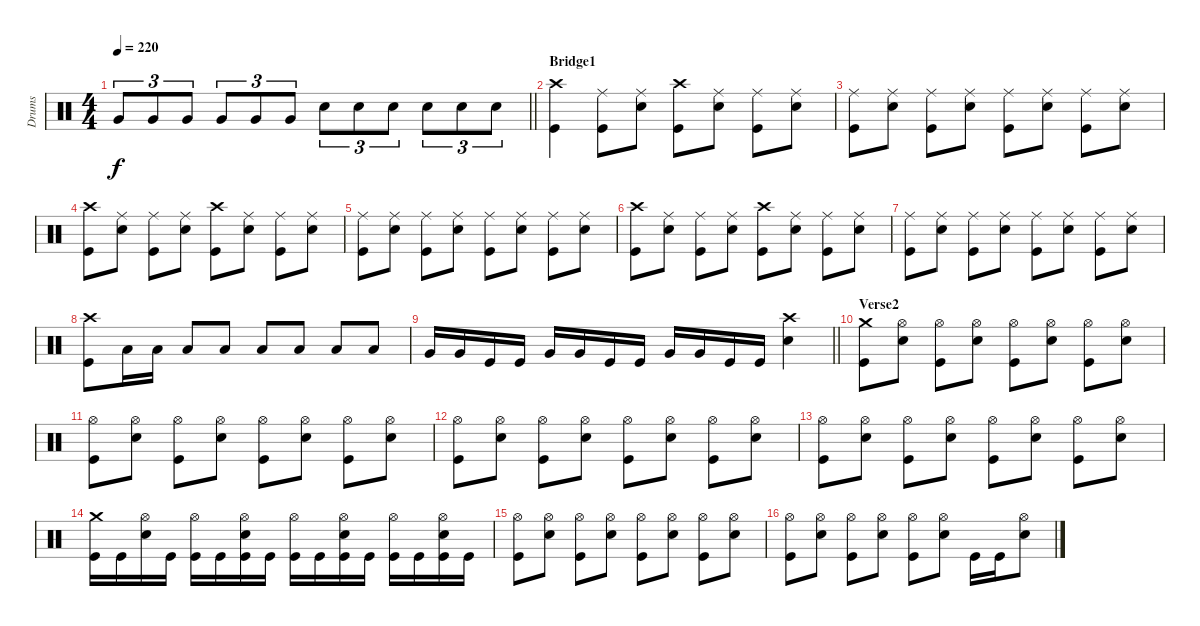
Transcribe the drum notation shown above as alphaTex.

\track ("Drums" "Drums") {instrument percussion}
\staff {score}
\articulation defaults
\ts (4 4)
\tempo 220
\clef neutral
\barLineRight lightlight
\ks c "Very Low Tom (hit)".8{tu (3 2) dy f} "Very Low Tom (hit)".8{tu (3 2)} "Very Low Tom (hit)".8{tu (3 2)} "Very Low Tom (hit)".8{tu (3 2)} "Very Low Tom (hit)".8{tu (3 2)} "Very Low Tom (hit)".8{tu (3 2)} "Snare (hit) 2".8{tu (3 2)} "Snare (hit) 2".8{tu (3 2)} "Snare (hit) 2".8{tu (3 2)} "Snare (hit) 2".8{tu (3 2)} "Snare (hit) 2".8{tu (3 2)} "Snare (hit) 2".8{tu (3 2)}
|
\section ("" "Bridge1")
("Crash high (hit)" "Kick (hit)").4 ("Ride (middle)" "Kick (hit)").8 ("Ride (middle)" "Snare (hit) 2").8 ("Crash high (hit)" "Kick (hit)").8 ("Ride (middle)" "Snare (hit) 2").8 ("Ride (middle)" "Kick (hit)").8 ("Ride (middle)" "Snare (hit) 2").8 |
("Ride (middle)" "Kick (hit)").8 ("Ride (middle)" "Snare (hit) 2").8 ("Ride (middle)" "Kick (hit)").8 ("Ride (middle)" "Snare (hit) 2").8 ("Ride (middle)" "Kick (hit)").8 ("Ride (middle)" "Snare (hit) 2").8 ("Ride (middle)" "Kick (hit)").8 ("Ride (middle)" "Snare (hit) 2").8 |
("Crash high (hit)" "Kick (hit)").8 ("Ride (middle)" "Snare (hit) 2").8 ("Ride (middle)" "Kick (hit)").8 ("Ride (middle)" "Snare (hit) 2").8 ("Crash high (hit)" "Kick (hit)").8 ("Ride (middle)" "Snare (hit) 2").8 ("Ride (middle)" "Kick (hit)").8 ("Ride (middle)" "Snare (hit) 2").8 |
("Ride (middle)" "Kick (hit)").8 ("Ride (middle)" "Snare (hit) 2").8 ("Ride (middle)" "Kick (hit)").8 ("Ride (middle)" "Snare (hit) 2").8 ("Ride (middle)" "Kick (hit)").8 ("Ride (middle)" "Snare (hit) 2").8 ("Ride (middle)" "Kick (hit)").8 ("Ride (middle)" "Snare (hit) 2").8 |
("Crash high (hit)" "Kick (hit)").8 ("Ride (middle)" "Snare (hit) 2").8 ("Ride (middle)" "Kick (hit)").8 ("Ride (middle)" "Snare (hit) 2").8 ("Crash high (hit)" "Kick (hit)").8 ("Ride (middle)" "Snare (hit) 2").8 ("Ride (middle)" "Kick (hit)").8 ("Ride (middle)" "Snare (hit) 2").8 |
("Ride (middle)" "Kick (hit)").8 ("Ride (middle)" "Snare (hit) 2").8 ("Ride (middle)" "Kick (hit)").8 ("Ride (middle)" "Snare (hit) 2").8 ("Ride (middle)" "Kick (hit)").8 ("Ride (middle)" "Snare (hit) 2").8 ("Ride (middle)" "Kick (hit)").8 ("Ride (middle)" "Snare (hit) 2").8 |
("Crash high (hit)" "Kick (hit)").8 "Low Tom (hit)".16 "Low Tom (hit)".16 "Low Tom (hit)".8 "Low Tom (hit)".8 "Low Tom (hit)".8 "Low Tom (hit)".8 "Low Tom (hit)".8 "Low Tom (hit)".8 |
\barLineRight lightlight "Very Low Tom (hit)".16 "Very Low Tom (hit)".16 "Kick (hit)".16 "Kick (hit)".16 "Very Low Tom (hit)".16 "Very Low Tom (hit)".16 "Kick (hit)".16 "Kick (hit)".16 "Very Low Tom (hit)".16 "Very Low Tom (hit)".16 "Kick (hit)".16 "Kick (hit)".16
("Crash high (hit)" "Snare (hit) 2").4 |
\section ("" "Verse2")
("Crash medium (hit)" "Kick (hit)").8 ("Hi-Hat (open)" "Snare (hit) 2").8 ("Hi-Hat (open)" "Kick (hit)").8 ("Hi-Hat (open)" "Snare (hit) 2").8 ("Hi-Hat (open)" "Kick (hit)").8 ("Hi-Hat (open)" "Snare (hit) 2").8 ("Hi-Hat (open)" "Kick (hit)").8 ("Hi-Hat (open)" "Snare (hit) 2").8 |
("Hi-Hat (open)" "Kick (hit)").8 ("Hi-Hat (open)" "Snare (hit) 2").8 ("Hi-Hat (open)" "Kick (hit)").8 ("Hi-Hat (open)" "Snare (hit) 2").8 ("Hi-Hat (open)" "Kick (hit)").8 ("Hi-Hat (open)" "Snare (hit) 2").8 ("Hi-Hat (open)" "Kick (hit)").8 ("Hi-Hat (open)" "Snare (hit) 2").8 |
("Hi-Hat (open)" "Kick (hit)").8 ("Hi-Hat (open)" "Snare (hit) 2").8 ("Hi-Hat (open)" "Kick (hit)").8 ("Hi-Hat (open)" "Snare (hit) 2").8 ("Hi-Hat (open)" "Kick (hit)").8 ("Hi-Hat (open)" "Snare (hit) 2").8 ("Hi-Hat (open)" "Kick (hit)").8 ("Hi-Hat (open)" "Snare (hit) 2").8 |
("Hi-Hat (open)" "Kick (hit)").8 ("Hi-Hat (open)" "Snare (hit) 2").8 ("Hi-Hat (open)" "Kick (hit)").8 ("Hi-Hat (open)" "Snare (hit) 2").8 ("Hi-Hat (open)" "Kick (hit)").8 ("Hi-Hat (open)" "Snare (hit) 2").8 ("Hi-Hat (open)" "Kick (hit)").8 ("Hi-Hat (open)" "Snare (hit) 2").8 |
("Crash medium (hit)" "Kick (hit)").16 "Kick (hit)".16 ("Hi-Hat (open)" "Snare (hit) 2").16 "Kick (hit)".16 ("Hi-Hat (open)" "Kick (hit)").16 "Kick (hit)".16 ("Hi-Hat (open)" "Snare (hit) 2" "Kick (hit)").16 "Kick (hit)".16 ("Hi-Hat (open)" "Kick (hit)").16 "Kick (hit)".16 ("Hi-Hat (open)" "Snare (hit) 2" "Kick (hit)").16 "Kick (hit)".16 ("Hi-Hat (open)" "Kick (hit)").16 "Kick (hit)".16 ("Hi-Hat (open)" "Snare (hit) 2" "Kick (hit)").16 "Kick (hit)".16 |
("Hi-Hat (open)" "Kick (hit)").8 ("Hi-Hat (open)" "Snare (hit) 2").8 ("Hi-Hat (open)" "Kick (hit)").8 ("Hi-Hat (open)" "Snare (hit) 2").8 ("Hi-Hat (open)" "Kick (hit)").8 ("Hi-Hat (open)" "Snare (hit) 2").8 ("Hi-Hat (open)" "Kick (hit)").8 ("Hi-Hat (open)" "Snare (hit) 2").8 |
("Hi-Hat (open)" "Kick (hit)").8 ("Hi-Hat (open)" "Snare (hit) 2").8 ("Hi-Hat (open)" "Kick (hit)").8 ("Hi-Hat (open)" "Snare (hit) 2").8 ("Hi-Hat (open)" "Kick (hit)").8 ("Hi-Hat (open)" "Snare (hit) 2").8 "Kick (hit)".16 "Kick (hit)".16 ("Hi-Hat (open)" "Snare (hit) 2").8
